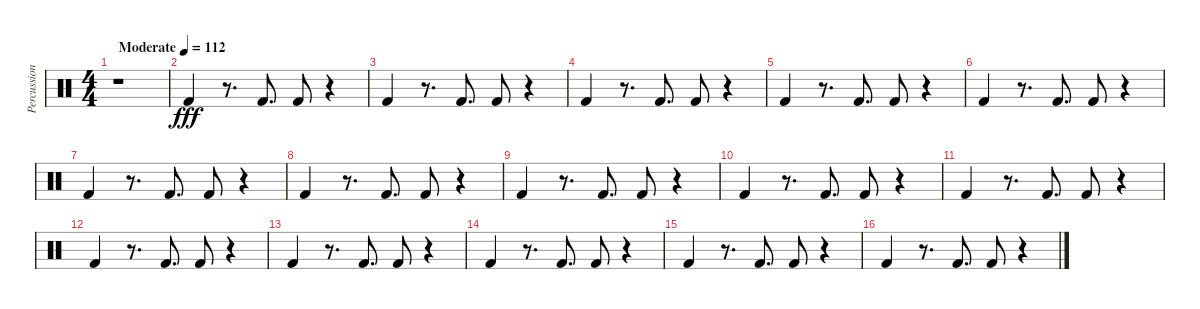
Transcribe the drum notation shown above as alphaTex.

\track ("Percussion" "Percussion") {instrument percussion}
\staff {score}
\articulation defaults
\ts (4 4)
\tempo (112 "Moderate")
\clef neutral
\ks c
r.1{dy fff} |
"Kick (hit) 2".4 r.8{d} "Kick (hit) 2".8{d} "Kick (hit) 2".8 r.4 |
"Kick (hit) 2".4 r.8{d} "Kick (hit) 2".8{d} "Kick (hit) 2".8 r.4 |
"Kick (hit) 2".4 r.8{d} "Kick (hit) 2".8{d} "Kick (hit) 2".8 r.4 |
"Kick (hit) 2".4 r.8{d} "Kick (hit) 2".8{d} "Kick (hit) 2".8 r.4 |
"Kick (hit) 2".4 r.8{d} "Kick (hit) 2".8{d} "Kick (hit) 2".8 r.4 |
"Kick (hit) 2".4 r.8{d} "Kick (hit) 2".8{d} "Kick (hit) 2".8 r.4 |
"Kick (hit) 2".4 r.8{d} "Kick (hit) 2".8{d} "Kick (hit) 2".8 r.4 |
"Kick (hit) 2".4 r.8{d} "Kick (hit) 2".8{d} "Kick (hit) 2".8 r.4 |
"Kick (hit) 2".4 r.8{d} "Kick (hit) 2".8{d} "Kick (hit) 2".8 r.4 |
"Kick (hit) 2".4 r.8{d} "Kick (hit) 2".8{d} "Kick (hit) 2".8 r.4 |
"Kick (hit) 2".4 r.8{d} "Kick (hit) 2".8{d} "Kick (hit) 2".8 r.4 |
"Kick (hit) 2".4 r.8{d} "Kick (hit) 2".8{d} "Kick (hit) 2".8 r.4 |
"Kick (hit) 2".4 r.8{d} "Kick (hit) 2".8{d} "Kick (hit) 2".8 r.4 |
"Kick (hit) 2".4 r.8{d} "Kick (hit) 2".8{d} "Kick (hit) 2".8 r.4 |
"Kick (hit) 2".4 r.8{d} "Kick (hit) 2".8{d} "Kick (hit) 2".8 r.4
